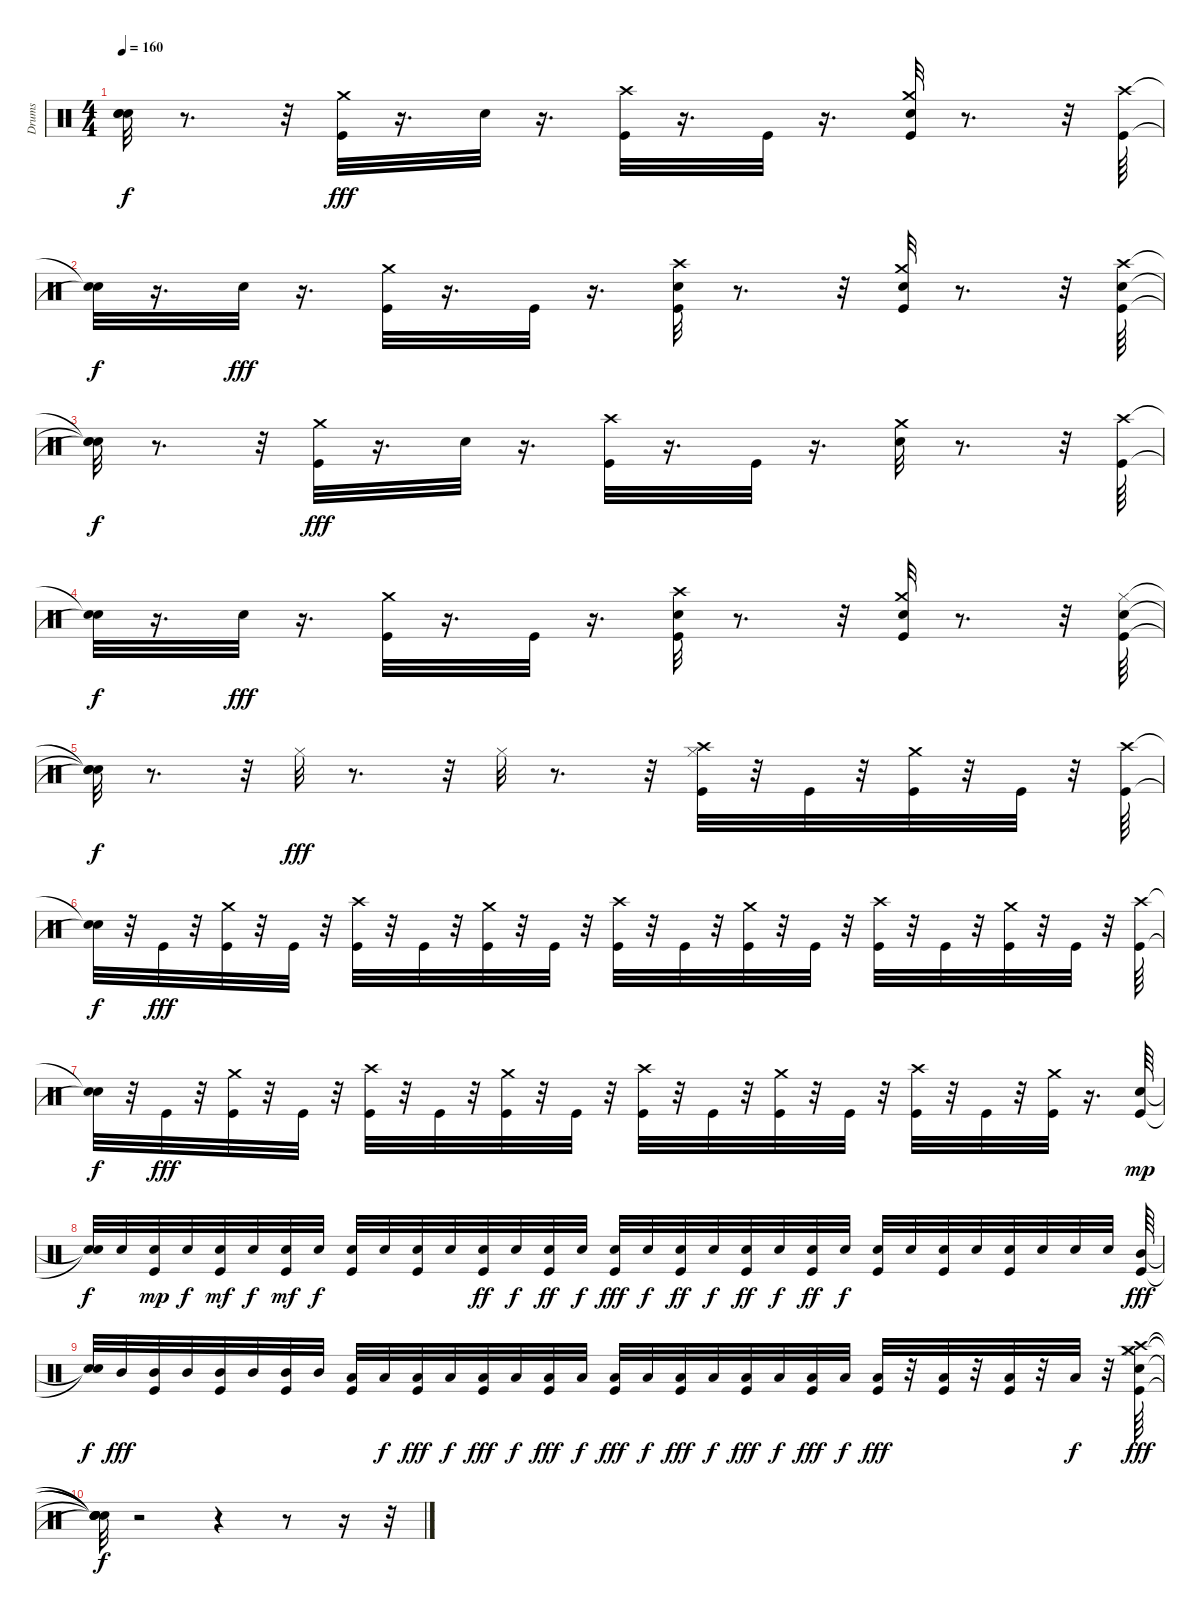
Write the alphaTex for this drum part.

\track ("Drums" "Drums") {instrument percussion}
\staff {score}
\articulation defaults
\ts (4 4)
\tempo 160
\clef neutral
\ks c
("Snare (hit)"{t} "Snare (hit)"{t} "Snare (hit)"{t}).32{dy f} r.8{d} r.32 ("Kick (hit)" "Crash medium (hit)").32{dy fff} r.16{d} "Electric Snare (hit)".32 r.16{d} ("Kick (hit)" "Crash high (hit)").32 r.16{d} "Kick (hit)".32 r.16{d} ("Kick (hit)" "Electric Snare (hit)" "Crash medium (hit)").32 r.8{d} r.32 ("Kick (hit)" "Crash high (hit)").64 |
("Snare (hit)"{t} "Snare (hit)"{t}).32{dy f} r.16{d} "Electric Snare (hit)".32{dy fff} r.16{d} ("Kick (hit)" "Crash medium (hit)").32 r.16{d} "Kick (hit)".32 r.16{d} ("Electric Snare (hit)" "Kick (hit)" "Crash high (hit)").32 r.8{d} r.32 ("Kick (hit)" "Electric Snare (hit)" "Crash medium (hit)").32 r.8{d} r.32 ("Electric Snare (hit)" "Kick (hit)" "Crash high (hit)").64 |
("Snare (hit)"{t} "Snare (hit)"{t} "Snare (hit)"{t}).32{dy f} r.8{d} r.32 ("Kick (hit)" "Crash medium (hit)").32{dy fff} r.16{d} "Electric Snare (hit)".32 r.16{d} ("Kick (hit)" "Crash high (hit)").32 r.16{d} "Kick (hit)".32 r.16{d} ("Electric Snare (hit)" "Crash medium (hit)").32 r.8{d} r.32 ("Kick (hit)" "Crash high (hit)").64 |
("Snare (hit)"{t} "Snare (hit)"{t}).32{dy f} r.16{d} "Electric Snare (hit)".32{dy fff} r.16{d} ("Kick (hit)" "Crash medium (hit)").32 r.16{d} "Kick (hit)".32 r.16{d} ("Electric Snare (hit)" "Kick (hit)" "Crash high (hit)").32 r.8{d} r.32 ("Electric Snare (hit)" "Kick (hit)" "Crash medium (hit)").32 r.8{d} r.32 ("Electric Snare (hit)" "Kick (hit)" "Hi-Hat (closed)").64 |
("Snare (hit)"{t} "Snare (hit)"{t} "Snare (hit)"{t}).32{dy f} r.8{d} r.32 "Hi-Hat (closed)".32{dy fff} r.8{d} r.32 "Hi-Hat (closed)".32 r.8{d} r.32 ("Kick (hit)" "Crash high (hit)" "Hi-Hat (closed)").32 r.32 "Kick (hit)".32 r.32 ("Kick (hit)" "Crash medium (hit)").32 r.32 "Kick (hit)".32 r.32 ("Kick (hit)" "Crash high (hit)").64 |
("Snare (hit)"{t} "Snare (hit)"{t}).32{dy f} r.32 "Kick (hit)".32{dy fff} r.32 ("Kick (hit)" "Crash medium (hit)").32 r.32 "Kick (hit)".32 r.32 ("Kick (hit)" "Crash high (hit)").32 r.32 "Kick (hit)".32 r.32 ("Kick (hit)" "Crash medium (hit)").32 r.32 "Kick (hit)".32 r.32 ("Kick (hit)" "Crash high (hit)").32 r.32 "Kick (hit)".32 r.32 ("Kick (hit)" "Crash medium (hit)").32 r.32 "Kick (hit)".32 r.32 ("Kick (hit)" "Crash high (hit)").32 r.32 "Kick (hit)".32 r.32 ("Kick (hit)" "Crash medium (hit)").32 r.32 "Kick (hit)".32 r.32 ("Kick (hit)" "Crash high (hit)").64 |
("Snare (hit)"{t} "Snare (hit)"{t}).32{dy f} r.32 "Kick (hit)".32{dy fff} r.32 ("Kick (hit)" "Crash medium (hit)").32 r.32 "Kick (hit)".32 r.32 ("Kick (hit)" "Crash high (hit)").32 r.32 "Kick (hit)".32 r.32 ("Kick (hit)" "Crash medium (hit)").32 r.32 "Kick (hit)".32 r.32 ("Kick (hit)" "Crash high (hit)").32 r.32 "Kick (hit)".32 r.32 ("Kick (hit)" "Crash medium (hit)").32 r.32 "Kick (hit)".32 r.32 ("Kick (hit)" "Crash high (hit)").32 r.32 "Kick (hit)".32 r.32 ("Kick (hit)" "Crash medium (hit)").32 r.16{d} ("Electric Snare (hit)" "Kick (hit)").64{dy mp} |
("Snare (hit)"{t} "Snare (hit)"{t}).32{dy f} "Electric Snare (hit)".32 ("Electric Snare (hit)" "Kick (hit)").32{dy mp} "Electric Snare (hit)".32{dy f} ("Electric Snare (hit)" "Kick (hit)").32{dy mf} "Electric Snare (hit)".32{dy f} ("Electric Snare (hit)" "Kick (hit)").32{dy mf} "Electric Snare (hit)".32{dy f} ("Electric Snare (hit)" "Kick (hit)").32 "Electric Snare (hit)".32 ("Electric Snare (hit)" "Kick (hit)").32 "Electric Snare (hit)".32 ("Electric Snare (hit)" "Kick (hit)").32{dy ff} "Electric Snare (hit)".32{dy f} ("Electric Snare (hit)" "Kick (hit)").32{dy ff} "Electric Snare (hit)".32{dy f} ("Electric Snare (hit)" "Kick (hit)").32{dy fff} "Electric Snare (hit)".32{dy f} ("Electric Snare (hit)" "Kick (hit)").32{dy ff} "Electric Snare (hit)".32{dy f} ("Electric Snare (hit)" "Kick (hit)").32{dy ff} "Electric Snare (hit)".32{dy f} ("Electric Snare (hit)" "Kick (hit)").32{dy ff} "Electric Snare (hit)".32{dy f} ("Electric Snare (hit)" "Kick (hit)").32 "Electric Snare (hit)".32 ("Electric Snare (hit)" "Kick (hit)").32 "Electric Snare (hit)".32 ("Electric Snare (hit)" "Kick (hit)").32 "Electric Snare (hit)".32 "Electric Snare (hit)".32 "Electric Snare (hit)".32 ("Kick (hit)" "Mid Tom (hit)").64{dy fff} |
("Snare (hit)"{t} "Snare (hit)"{t}).32{dy f} "Mid Tom (hit)".32{dy fff} ("Kick (hit)" "Mid Tom (hit)").32 "Mid Tom (hit)".32 ("Kick (hit)" "Mid Tom (hit)").32 "Mid Tom (hit)".32 ("Kick (hit)" "Mid Tom (hit)").32 "Mid Tom (hit)".32 ("Kick (hit)" "Low Tom (hit)").32 "Low Tom (hit)".32{dy f} ("Kick (hit)" "Low Tom (hit)").32{dy fff} "Low Tom (hit)".32{dy f} ("Kick (hit)" "Low Tom (hit)").32{dy fff} "Low Tom (hit)".32{dy f} ("Kick (hit)" "Low Tom (hit)").32{dy fff} "Low Tom (hit)".32{dy f} ("Kick (hit)" "Low Floor Tom (hit)").32{dy fff} "Low Floor Tom (hit)".32{dy f} ("Kick (hit)" "Low Floor Tom (hit)").32{dy fff} "Low Floor Tom (hit)".32{dy f} ("Kick (hit)" "Low Floor Tom (hit)").32{dy fff} "Low Floor Tom (hit)".32{dy f} ("Kick (hit)" "Low Floor Tom (hit)").32{dy fff} "Low Floor Tom (hit)".32{dy f} ("Kick (hit)" "Low Floor Tom (hit)").32{dy fff} r.32 ("Kick (hit)" "Low Floor Tom (hit)").32 r.32 ("Kick (hit)" "Low Floor Tom (hit)").32 r.32 "Low Floor Tom (hit)".32{dy f} r.32 ("Electric Snare (hit)" "Kick (hit)" "Crash medium (hit)" "Crash high (hit)" "Hi-Hat (closed)").64{dy fff} |
("Snare (hit)"{t} "Snare (hit)"{t} "Snare (hit)"{t} "Snare (hit)"{t} "Snare (hit)"{t}).32{dy f} r.2 r.4 r.8 r.16 r.32
